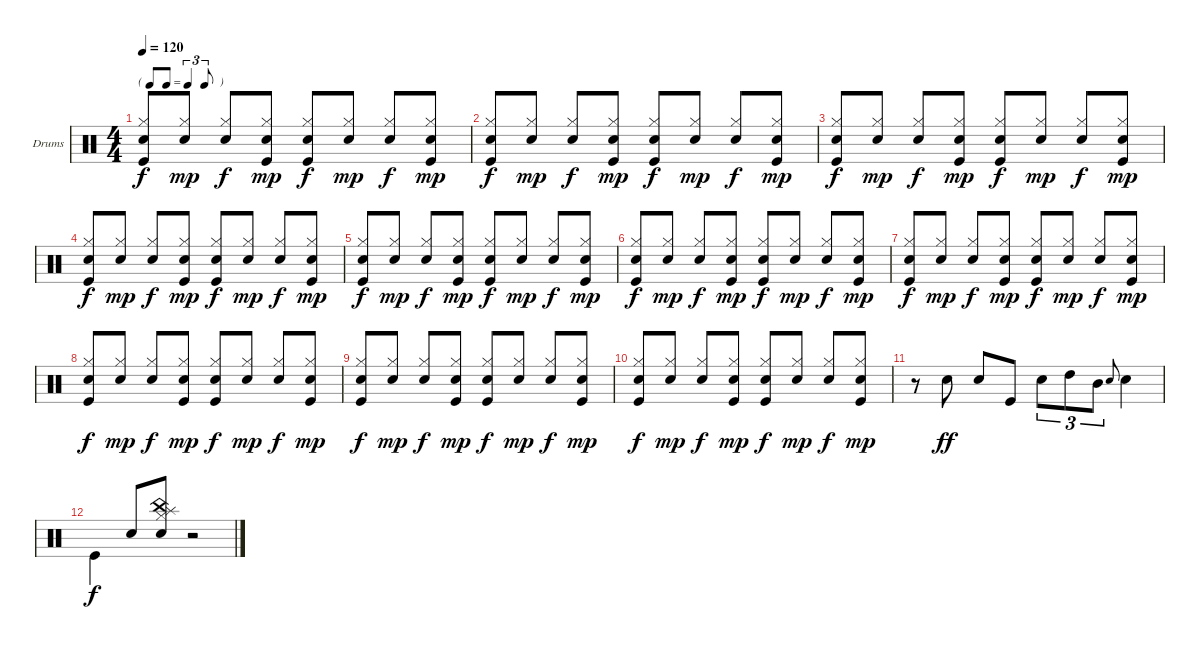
\defaultSystemsLayout 4
\bracketExtendMode groupsimilarinstruments
\firstSystemTrackNameOrientation horizontal
\otherSystemsTrackNameOrientation horizontal
\track ("Drumkit" "Drums") {instrument percussion}
\staff {score}
\articulation defaults
\ts (4 4)
\tf triplet8th
\tempo 120
\clef neutral
\ks c
("Hi-Hat (closed)" "Kick (hit)" "Snare (hit) 2").8{dy f beam invert} ("Hi-Hat (closed)" "Snare (hit) 2").8{dy mp} ("Hi-Hat (closed)" "Snare (hit) 2").8{dy f beam invert} ("Hi-Hat (closed)" "Kick (hit)" "Snare (hit) 2").8{dy mp} ("Hi-Hat (closed)" "Kick (hit)" "Snare (hit) 2").8{dy f beam invert} ("Hi-Hat (closed)" "Snare (hit) 2").8{dy mp} ("Hi-Hat (closed)" "Snare (hit) 2").8{dy f beam invert} ("Hi-Hat (closed)" "Kick (hit)" "Snare (hit) 2").8{dy mp} |
("Hi-Hat (closed)" "Kick (hit)" "Snare (hit) 2").8{dy f beam invert} ("Hi-Hat (closed)" "Snare (hit) 2").8{dy mp} ("Hi-Hat (closed)" "Snare (hit) 2").8{dy f beam invert} ("Hi-Hat (closed)" "Kick (hit)" "Snare (hit) 2").8{dy mp} ("Hi-Hat (closed)" "Kick (hit)" "Snare (hit) 2").8{dy f beam invert} ("Hi-Hat (closed)" "Snare (hit) 2").8{dy mp} ("Hi-Hat (closed)" "Snare (hit) 2").8{dy f beam invert} ("Hi-Hat (closed)" "Kick (hit)" "Snare (hit) 2").8{dy mp} |
("Hi-Hat (closed)" "Kick (hit)" "Snare (hit) 2").8{dy f beam invert} ("Hi-Hat (closed)" "Snare (hit) 2").8{dy mp} ("Hi-Hat (closed)" "Snare (hit) 2").8{dy f beam invert} ("Hi-Hat (closed)" "Kick (hit)" "Snare (hit) 2").8{dy mp} ("Hi-Hat (closed)" "Kick (hit)" "Snare (hit) 2").8{dy f beam invert} ("Hi-Hat (closed)" "Snare (hit) 2").8{dy mp} ("Hi-Hat (closed)" "Snare (hit) 2").8{dy f beam invert} ("Hi-Hat (closed)" "Kick (hit)" "Snare (hit) 2").8{dy mp} |
("Hi-Hat (closed)" "Kick (hit)" "Snare (hit) 2").8{dy f beam invert} ("Hi-Hat (closed)" "Snare (hit) 2").8{dy mp} ("Hi-Hat (closed)" "Snare (hit) 2").8{dy f beam invert} ("Hi-Hat (closed)" "Kick (hit)" "Snare (hit) 2").8{dy mp} ("Hi-Hat (closed)" "Kick (hit)" "Snare (hit) 2").8{dy f beam invert} ("Hi-Hat (closed)" "Snare (hit) 2").8{dy mp} ("Hi-Hat (closed)" "Snare (hit) 2").8{dy f beam invert} ("Hi-Hat (closed)" "Kick (hit)" "Snare (hit) 2").8{dy mp} |
("Hi-Hat (closed)" "Kick (hit)" "Snare (hit) 2").8{dy f beam invert} ("Hi-Hat (closed)" "Snare (hit) 2").8{dy mp} ("Hi-Hat (closed)" "Snare (hit) 2").8{dy f beam invert} ("Hi-Hat (closed)" "Kick (hit)" "Snare (hit) 2").8{dy mp} ("Hi-Hat (closed)" "Kick (hit)" "Snare (hit) 2").8{dy f beam invert} ("Hi-Hat (closed)" "Snare (hit) 2").8{dy mp} ("Hi-Hat (closed)" "Snare (hit) 2").8{dy f beam invert} ("Hi-Hat (closed)" "Kick (hit)" "Snare (hit) 2").8{dy mp} |
("Hi-Hat (closed)" "Kick (hit)" "Snare (hit) 2").8{dy f beam invert} ("Hi-Hat (closed)" "Snare (hit) 2").8{dy mp} ("Hi-Hat (closed)" "Snare (hit) 2").8{dy f beam invert} ("Hi-Hat (closed)" "Kick (hit)" "Snare (hit) 2").8{dy mp} ("Hi-Hat (closed)" "Kick (hit)" "Snare (hit) 2").8{dy f beam invert} ("Hi-Hat (closed)" "Snare (hit) 2").8{dy mp} ("Hi-Hat (closed)" "Snare (hit) 2").8{dy f beam invert} ("Hi-Hat (closed)" "Kick (hit)" "Snare (hit) 2").8{dy mp} |
("Hi-Hat (closed)" "Kick (hit)" "Snare (hit) 2").8{dy f beam invert} ("Hi-Hat (closed)" "Snare (hit) 2").8{dy mp} ("Hi-Hat (closed)" "Snare (hit) 2").8{dy f beam invert} ("Hi-Hat (closed)" "Kick (hit)" "Snare (hit) 2").8{dy mp} ("Hi-Hat (closed)" "Kick (hit)" "Snare (hit) 2").8{dy f beam invert} ("Hi-Hat (closed)" "Snare (hit) 2").8{dy mp} ("Hi-Hat (closed)" "Snare (hit) 2").8{dy f beam invert} ("Hi-Hat (closed)" "Kick (hit)" "Snare (hit) 2").8{dy mp} |
("Hi-Hat (closed)" "Kick (hit)" "Snare (hit) 2").8{dy f beam invert} ("Hi-Hat (closed)" "Snare (hit) 2").8{dy mp} ("Hi-Hat (closed)" "Snare (hit) 2").8{dy f beam invert} ("Hi-Hat (closed)" "Kick (hit)" "Snare (hit) 2").8{dy mp} ("Hi-Hat (closed)" "Kick (hit)" "Snare (hit) 2").8{dy f beam invert} ("Hi-Hat (closed)" "Snare (hit) 2").8{dy mp} ("Hi-Hat (closed)" "Snare (hit) 2").8{dy f beam invert} ("Hi-Hat (closed)" "Kick (hit)" "Snare (hit) 2").8{dy mp} |
("Hi-Hat (closed)" "Kick (hit)" "Snare (hit) 2").8{dy f beam invert} ("Hi-Hat (closed)" "Snare (hit) 2").8{dy mp} ("Hi-Hat (closed)" "Snare (hit) 2").8{dy f beam invert} ("Hi-Hat (closed)" "Kick (hit)" "Snare (hit) 2").8{dy mp} ("Hi-Hat (closed)" "Kick (hit)" "Snare (hit) 2").8{dy f beam invert} ("Hi-Hat (closed)" "Snare (hit) 2").8{dy mp} ("Hi-Hat (closed)" "Snare (hit) 2").8{dy f beam invert} ("Hi-Hat (closed)" "Kick (hit)" "Snare (hit) 2").8{dy mp} |
("Hi-Hat (closed)" "Kick (hit)" "Snare (hit) 2").8{dy f beam invert} ("Hi-Hat (closed)" "Snare (hit) 2").8{dy mp} ("Hi-Hat (closed)" "Snare (hit) 2").8{dy f beam invert} ("Hi-Hat (closed)" "Kick (hit)" "Snare (hit) 2").8{dy mp} ("Hi-Hat (closed)" "Kick (hit)" "Snare (hit) 2").8{dy f beam invert} ("Hi-Hat (closed)" "Snare (hit) 2").8{dy mp} ("Hi-Hat (closed)" "Snare (hit) 2").8{dy f beam invert} ("Hi-Hat (closed)" "Kick (hit)" "Snare (hit) 2").8{dy mp} |
r.8 "Snare (hit) 2".8{dy ff} "Snare (hit) 2".8 "Kick (hit)".8 "Snare (hit) 2".8{tu (3 2)} "High Tom (hit)".8{tu (3 2)} "Mid Tom (hit)".8{tu (3 2)} "Snare (hit) 2".8{gr onbeat} "Snare (hit) 2".4 |
"Kick (hit)".4{dy f beam invert} "Snare (hit) 2".8 ("Snare (hit) 2" "China (hit)" "Hi-Hat (closed)" "Splash (hit)").8{beam invert} r.2
